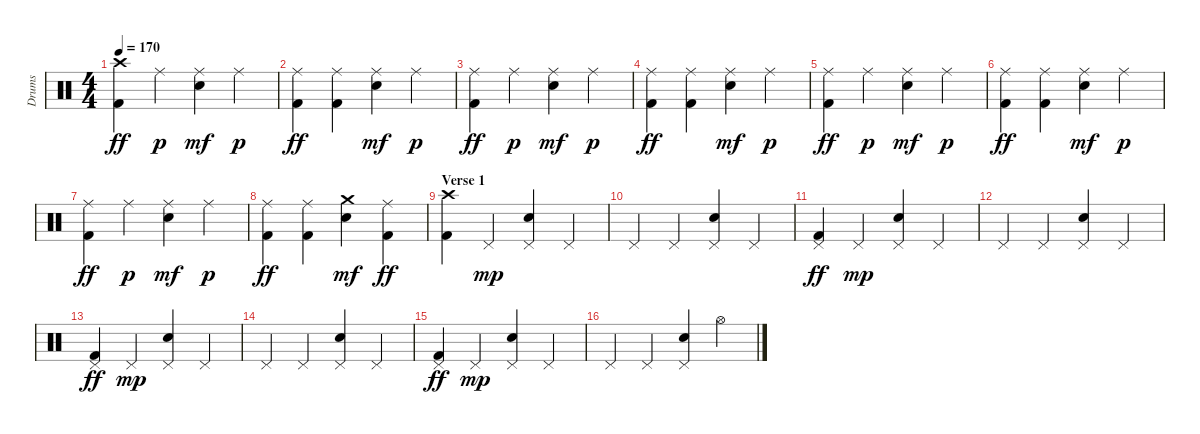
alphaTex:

\track ("Drums" "Drums") {instrument percussion}
\staff {score}
\articulation defaults
\ts (4 4)
\tempo 170
\clef neutral
\ks c
("Crash high (hit)" "Kick (hit) 2").4{dy ff} "Ride (middle)".4{dy p} ("Ride (middle)" "Electric Snare (hit)").4{dy mf} "Ride (middle)".4{dy p} |
("Ride (middle)" "Kick (hit) 2").4{dy ff} ("Ride (middle)" "Kick (hit) 2").4 ("Ride (middle)" "Electric Snare (hit)").4{dy mf} "Ride (middle)".4{dy p} |
("Ride (middle)" "Kick (hit) 2").4{dy ff} "Ride (middle)".4{dy p} ("Ride (middle)" "Electric Snare (hit)").4{dy mf} "Ride (middle)".4{dy p} |
("Ride (middle)" "Kick (hit) 2").4{dy ff} ("Ride (middle)" "Kick (hit) 2").4 ("Ride (middle)" "Electric Snare (hit)").4{dy mf} "Ride (middle)".4{dy p} |
("Ride (middle)" "Kick (hit) 2").4{dy ff} "Ride (middle)".4{dy p} ("Ride (middle)" "Electric Snare (hit)").4{dy mf} "Ride (middle)".4{dy p} |
("Ride (middle)" "Kick (hit) 2").4{dy ff} ("Ride (middle)" "Kick (hit) 2").4 ("Ride (middle)" "Electric Snare (hit)").4{dy mf} "Ride (middle)".4{dy p} |
("Ride (middle)" "Kick (hit) 2").4{dy ff} "Ride (middle)".4{dy p} ("Ride (middle)" "Electric Snare (hit)").4{dy mf} "Ride (middle)".4{dy p} |
("Ride (middle)" "Kick (hit) 2").4{dy ff} ("Ride (middle)" "Kick (hit) 2").4 ("Crash medium (hit)" "Electric Snare (hit)").4{dy mf} ("Ride (middle)" "Kick (hit) 2").4{dy ff} |
\section ("" "Verse 1")
("Crash high (hit)" "Kick (hit) 2").4 "Pedal Hi-Hat (hit)".4{dy mp} ("Pedal Hi-Hat (hit)" "Electric Snare (hit)").4 "Pedal Hi-Hat (hit)".4 |
"Pedal Hi-Hat (hit)".4 "Pedal Hi-Hat (hit)".4 ("Pedal Hi-Hat (hit)" "Electric Snare (hit)").4 "Pedal Hi-Hat (hit)".4 |
("Pedal Hi-Hat (hit)" "Kick (hit) 2").4{dy ff} "Pedal Hi-Hat (hit)".4{dy mp} ("Pedal Hi-Hat (hit)" "Electric Snare (hit)").4 "Pedal Hi-Hat (hit)".4 |
"Pedal Hi-Hat (hit)".4 "Pedal Hi-Hat (hit)".4 ("Pedal Hi-Hat (hit)" "Electric Snare (hit)").4 "Pedal Hi-Hat (hit)".4 |
("Pedal Hi-Hat (hit)" "Kick (hit) 2").4{dy ff} "Pedal Hi-Hat (hit)".4{dy mp} ("Pedal Hi-Hat (hit)" "Electric Snare (hit)").4 "Pedal Hi-Hat (hit)".4 |
"Pedal Hi-Hat (hit)".4 "Pedal Hi-Hat (hit)".4 ("Pedal Hi-Hat (hit)" "Electric Snare (hit)").4 "Pedal Hi-Hat (hit)".4 |
("Pedal Hi-Hat (hit)" "Kick (hit) 2").4{dy ff} "Pedal Hi-Hat (hit)".4{dy mp} ("Pedal Hi-Hat (hit)" "Electric Snare (hit)").4 "Pedal Hi-Hat (hit)".4 |
"Pedal Hi-Hat (hit)".4 "Pedal Hi-Hat (hit)".4 ("Pedal Hi-Hat (hit)" "Electric Snare (hit)").4 "Hi-Hat (open)".4
